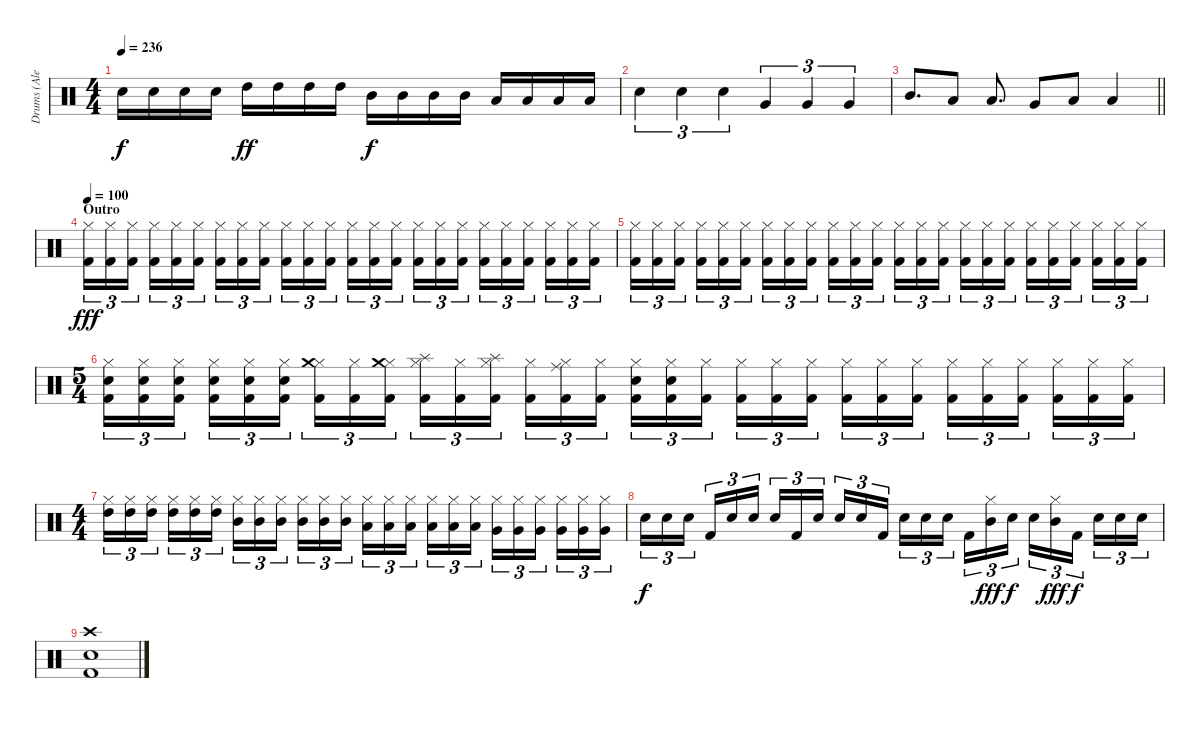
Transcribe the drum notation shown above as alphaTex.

\track ("Drums (Alex Van Halen)" "Drums (Ale") {instrument percussion}
\staff {score}
\articulation defaults
\ts (4 4)
\tempo 236
\clef neutral
\ks c "Snare (hit) 2".16{dy f} "Snare (hit) 2".16 "Snare (hit) 2".16 "Snare (hit) 2".16 "High Tom (hit)".16{dy ff} "High Tom (hit)".16 "High Tom (hit)".16 "High Tom (hit)".16 "Mid Tom (hit)".16{dy f} "Mid Tom (hit)".16 "Mid Tom (hit)".16 "Mid Tom (hit)".16 "Low Tom (hit)".16 "Low Tom (hit)".16 "Low Tom (hit)".16 "Low Tom (hit)".16
|
"Snare (hit) 2".4{tu (3 2)} "Snare (hit) 2".4{tu (3 2)} "Snare (hit) 2".4{tu (3 2)} "Very Low Tom (hit)".4{tu (3 2)} "Very Low Tom (hit)".4{tu (3 2)} "Very Low Tom (hit)".4{tu (3 2)} |
\barLineRight lightlight "Mid Tom (hit)".8{d} "Low Tom (hit)".8 "Low Tom (hit)".8{d} "Very Low Tom (hit)".8 "Low Floor Tom (hit)".8 "Low Floor Tom (hit)".4
|
\section ("" "Outro")
\tempo 100
("Hi-Hat (closed)" "Kick (hit) 2").16{tu (3 2) dy fff} ("Hi-Hat (closed)" "Kick (hit) 2").16{tu (3 2)} ("Hi-Hat (closed)" "Kick (hit) 2").16{tu (3 2) beam splitsecondary} ("Hi-Hat (closed)" "Kick (hit) 2").16{tu (3 2)} ("Hi-Hat (closed)" "Kick (hit) 2").16{tu (3 2)} ("Hi-Hat (closed)" "Kick (hit) 2").16{tu (3 2)} ("Hi-Hat (closed)" "Kick (hit) 2").16{tu (3 2)} ("Hi-Hat (closed)" "Kick (hit) 2").16{tu (3 2)} ("Hi-Hat (closed)" "Kick (hit) 2").16{tu (3 2) beam splitsecondary} ("Hi-Hat (closed)" "Kick (hit) 2").16{tu (3 2)} ("Hi-Hat (closed)" "Kick (hit) 2").16{tu (3 2)} ("Hi-Hat (closed)" "Kick (hit) 2").16{tu (3 2)} ("Hi-Hat (closed)" "Kick (hit) 2").16{tu (3 2)} ("Hi-Hat (closed)" "Kick (hit) 2").16{tu (3 2)} ("Hi-Hat (closed)" "Kick (hit) 2").16{tu (3 2) beam splitsecondary} ("Hi-Hat (closed)" "Kick (hit) 2").16{tu (3 2)} ("Hi-Hat (closed)" "Kick (hit) 2").16{tu (3 2)} ("Hi-Hat (closed)" "Kick (hit) 2").16{tu (3 2)} ("Hi-Hat (closed)" "Kick (hit) 2").16{tu (3 2)} ("Hi-Hat (closed)" "Kick (hit) 2").16{tu (3 2)} ("Hi-Hat (closed)" "Kick (hit) 2").16{tu (3 2) beam splitsecondary} ("Hi-Hat (closed)" "Kick (hit) 2").16{tu (3 2)} ("Hi-Hat (closed)" "Kick (hit) 2").16{tu (3 2)} ("Hi-Hat (closed)" "Kick (hit) 2").16{tu (3 2)} |
("Hi-Hat (closed)" "Kick (hit) 2").16{tu (3 2)} ("Hi-Hat (closed)" "Kick (hit) 2").16{tu (3 2)} ("Hi-Hat (closed)" "Kick (hit) 2").16{tu (3 2) beam splitsecondary} ("Hi-Hat (closed)" "Kick (hit) 2").16{tu (3 2)} ("Hi-Hat (closed)" "Kick (hit) 2").16{tu (3 2)} ("Hi-Hat (closed)" "Kick (hit) 2").16{tu (3 2)} ("Hi-Hat (closed)" "Kick (hit) 2").16{tu (3 2)} ("Hi-Hat (closed)" "Kick (hit) 2").16{tu (3 2)} ("Hi-Hat (closed)" "Kick (hit) 2").16{tu (3 2) beam splitsecondary} ("Hi-Hat (closed)" "Kick (hit) 2").16{tu (3 2)} ("Hi-Hat (closed)" "Kick (hit) 2").16{tu (3 2)} ("Hi-Hat (closed)" "Kick (hit) 2").16{tu (3 2)} ("Hi-Hat (closed)" "Kick (hit) 2").16{tu (3 2)} ("Hi-Hat (closed)" "Kick (hit) 2").16{tu (3 2)} ("Hi-Hat (closed)" "Kick (hit) 2").16{tu (3 2) beam splitsecondary} ("Hi-Hat (closed)" "Kick (hit) 2").16{tu (3 2)} ("Hi-Hat (closed)" "Kick (hit) 2").16{tu (3 2)} ("Hi-Hat (closed)" "Kick (hit) 2").16{tu (3 2)} ("Hi-Hat (closed)" "Kick (hit) 2").16{tu (3 2)} ("Hi-Hat (closed)" "Kick (hit) 2").16{tu (3 2)} ("Hi-Hat (closed)" "Kick (hit) 2").16{tu (3 2) beam splitsecondary} ("Hi-Hat (closed)" "Kick (hit) 2").16{tu (3 2)} ("Hi-Hat (closed)" "Kick (hit) 2").16{tu (3 2)} ("Hi-Hat (closed)" "Kick (hit) 2").16{tu (3 2)} |
\ts (5 4)
("Hi-Hat (closed)" "Electric Snare (hit)" "Kick (hit) 2").16{tu (3 2)} ("Hi-Hat (closed)" "Electric Snare (hit)" "Kick (hit) 2").16{tu (3 2)} ("Hi-Hat (closed)" "Electric Snare (hit)" "Kick (hit) 2").16{tu (3 2) beam splitsecondary} ("Hi-Hat (closed)" "Electric Snare (hit)" "Kick (hit) 2").16{tu (3 2)} ("Hi-Hat (closed)" "Electric Snare (hit)" "Kick (hit) 2").16{tu (3 2)} ("Hi-Hat (closed)" "Electric Snare (hit)" "Kick (hit) 2").16{tu (3 2)} ("Hi-Hat (closed)" "Crash medium (hit)" "Kick (hit) 2").16{tu (3 2)} ("Hi-Hat (closed)" "Kick (hit) 2").16{tu (3 2)} ("Hi-Hat (closed)" "Crash medium (hit)" "Kick (hit) 2").16{tu (3 2) beam splitsecondary} ("Hi-Hat (closed)" "Splash (hit)" "Kick (hit) 2").16{tu (3 2)} ("Hi-Hat (closed)" "Kick (hit) 2").16{tu (3 2)} ("Hi-Hat (closed)" "Splash (hit)" "Kick (hit) 2").16{tu (3 2)} ("Hi-Hat (closed)" "Kick (hit) 2").16{tu (3 2)} ("Hi-Hat (closed)" "Ride (middle)" "Kick (hit) 2").16{tu (3 2)} ("Hi-Hat (closed)" "Kick (hit) 2").16{tu (3 2) beam splitsecondary} ("Hi-Hat (closed)" "Electric Snare (hit)" "Kick (hit) 2").16{tu (3 2)} ("Hi-Hat (closed)" "Electric Snare (hit)" "Kick (hit) 2").16{tu (3 2)} ("Hi-Hat (closed)" "Kick (hit) 2").16{tu (3 2)} ("Hi-Hat (closed)" "Kick (hit) 2").16{tu (3 2)} ("Hi-Hat (closed)" "Kick (hit) 2").16{tu (3 2)} ("Hi-Hat (closed)" "Kick (hit) 2").16{tu (3 2) beam splitsecondary} ("Hi-Hat (closed)" "Kick (hit) 2").16{tu (3 2)} ("Hi-Hat (closed)" "Kick (hit) 2").16{tu (3 2)} ("Hi-Hat (closed)" "Kick (hit) 2").16{tu (3 2)} ("Hi-Hat (closed)" "Kick (hit) 2").16{tu (3 2)} ("Hi-Hat (closed)" "Kick (hit) 2").16{tu (3 2)} ("Hi-Hat (closed)" "Kick (hit) 2").16{tu (3 2) beam splitsecondary} ("Hi-Hat (closed)" "Kick (hit) 2").16{tu (3 2)} ("Hi-Hat (closed)" "Kick (hit) 2").16{tu (3 2)} ("Hi-Hat (closed)" "Kick (hit) 2").16{tu (3 2)} |
\ts (4 4)
("Hi-Hat (closed)" "High Tom (hit)").16{tu (3 2)} ("Hi-Hat (closed)" "High Tom (hit)").16{tu (3 2)} ("Hi-Hat (closed)" "High Tom (hit)").16{tu (3 2) beam splitsecondary} ("Hi-Hat (closed)" "High Tom (hit)").16{tu (3 2)} ("Hi-Hat (closed)" "High Tom (hit)").16{tu (3 2)} ("Hi-Hat (closed)" "High Tom (hit)").16{tu (3 2)} ("Hi-Hat (closed)" "Mid Tom (hit)").16{tu (3 2)} ("Hi-Hat (closed)" "Mid Tom (hit)").16{tu (3 2)} ("Hi-Hat (closed)" "Mid Tom (hit)").16{tu (3 2) beam splitsecondary} ("Hi-Hat (closed)" "Mid Tom (hit)").16{tu (3 2)} ("Hi-Hat (closed)" "Mid Tom (hit)").16{tu (3 2)} ("Hi-Hat (closed)" "Mid Tom (hit)").16{tu (3 2)} ("Hi-Hat (closed)" "Low Tom (hit)").16{tu (3 2)} ("Hi-Hat (closed)" "Low Tom (hit)").16{tu (3 2)} ("Hi-Hat (closed)" "Low Tom (hit)").16{tu (3 2) beam splitsecondary} ("Hi-Hat (closed)" "Low Tom (hit)").16{tu (3 2)} ("Hi-Hat (closed)" "Low Tom (hit)").16{tu (3 2)} ("Hi-Hat (closed)" "Low Tom (hit)").16{tu (3 2)} ("Hi-Hat (closed)" "Very Low Tom (hit)").16{tu (3 2)} ("Hi-Hat (closed)" "Very Low Tom (hit)").16{tu (3 2)} ("Hi-Hat (closed)" "Very Low Tom (hit)").16{tu (3 2) beam splitsecondary} ("Hi-Hat (closed)" "Very Low Tom (hit)").16{tu (3 2)} ("Hi-Hat (closed)" "Very Low Tom (hit)").16{tu (3 2)} ("Hi-Hat (closed)" "Very Low Tom (hit)").16{tu (3 2)} |
"Snare (hit) 2".16{tu (3 2) dy f} "Snare (hit) 2".16{tu (3 2)} "Snare (hit) 2".16{tu (3 2) beam splitsecondary} "Kick (hit) 2".16{tu (3 2)} "Snare (hit) 2".16{tu (3 2)} "Snare (hit) 2".16{tu (3 2)} "Snare (hit) 2".16{tu (3 2)} "Kick (hit) 2".16{tu (3 2)} "Snare (hit) 2".16{tu (3 2) beam splitsecondary} "Snare (hit) 2".16{tu (3 2)} "Snare (hit) 2".16{tu (3 2)} "Kick (hit) 2".16{tu (3 2)} "Snare (hit) 2".16{tu (3 2)} "Snare (hit) 2".16{tu (3 2)} "Snare (hit) 2".16{tu (3 2) beam splitsecondary} "Kick (hit) 2".16{tu (3 2)} ("Hi-Hat (closed)" "Mid Tom (hit)").16{tu (3 2) dy fff} "Snare (hit) 2".16{tu (3 2) dy f} "Snare (hit) 2".16{tu (3 2)} ("Hi-Hat (closed)" "Mid Tom (hit)").16{tu (3 2) dy fff} "Kick (hit) 2".16{tu (3 2) dy f beam splitsecondary} "Snare (hit) 2".16{tu (3 2)} "Snare (hit) 2".16{tu (3 2)} "Snare (hit) 2".16{tu (3 2)} |
("Kick (hit) 2" "Snare (hit) 2" "Crash high (hit)").1
